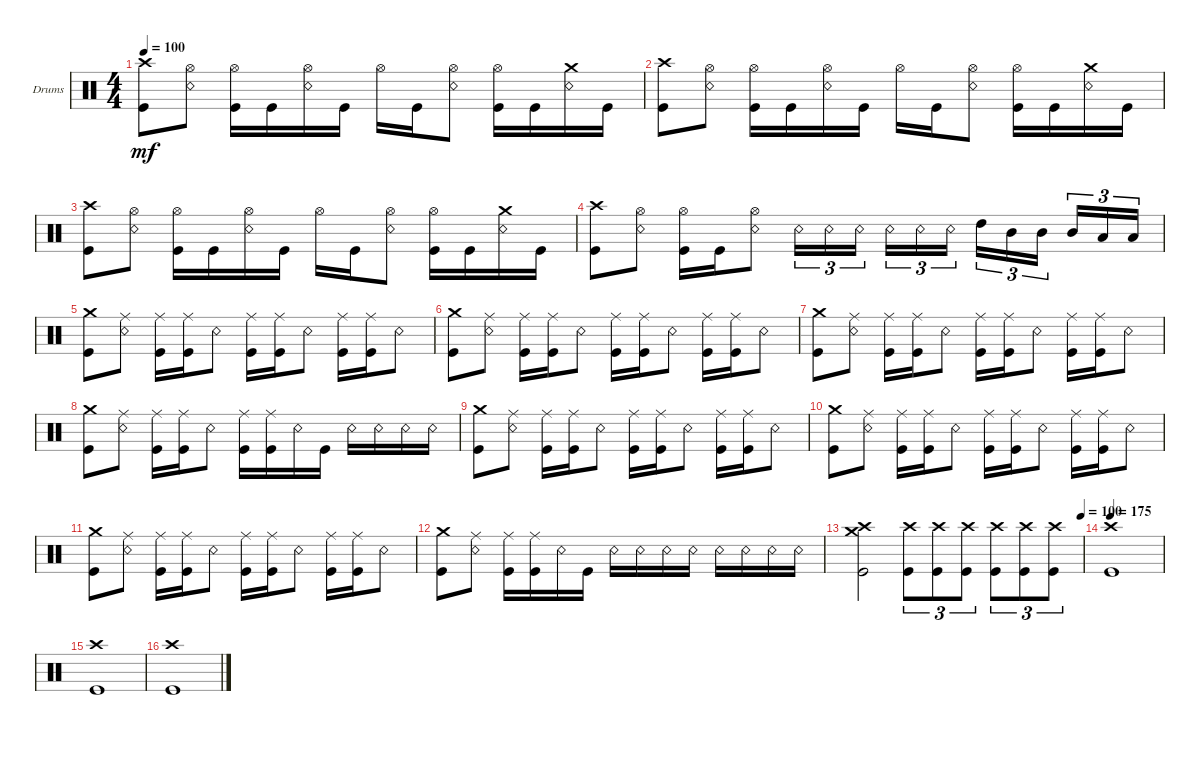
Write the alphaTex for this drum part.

\defaultSystemsLayout 4
\bracketExtendMode groupsimilarinstruments
\firstSystemTrackNameOrientation horizontal
\otherSystemsTrackNameOrientation horizontal
\track ("Drumkit" "Drums") {instrument percussion}
\staff {score}
\articulation defaults
\ts (4 4)
\tempo 100
\clef neutral
\ks c
("Kick (hit)" "Crash high (hit)").8{dy mf} ("Snare (rim shot)" "Hi-Hat (open)").8 ("Kick (hit)" "Hi-Hat (open)").16 "Kick (hit)".16 ("Snare (rim shot)" "Hi-Hat (open)").16 "Kick (hit)".16 "Hi-Hat (open)".16 "Kick (hit)".16 ("Snare (rim shot)" "Hi-Hat (open)").8 ("Kick (hit)" "Hi-Hat (open)").16 "Kick (hit)".16 ("Snare (rim shot)" "Crash medium (hit)").16 "Kick (hit)".16 |
("Kick (hit)" "Crash high (hit)").8 ("Snare (rim shot)" "Hi-Hat (open)").8 ("Kick (hit)" "Hi-Hat (open)").16 "Kick (hit)".16 ("Snare (rim shot)" "Hi-Hat (open)").16 "Kick (hit)".16 "Hi-Hat (open)".16 "Kick (hit)".16 ("Snare (rim shot)" "Hi-Hat (open)").8 ("Kick (hit)" "Hi-Hat (open)").16 "Kick (hit)".16 ("Snare (rim shot)" "Crash medium (hit)").16 "Kick (hit)".16 |
("Kick (hit)" "Crash high (hit)").8 ("Snare (rim shot)" "Hi-Hat (open)").8 ("Kick (hit)" "Hi-Hat (open)").16 "Kick (hit)".16 ("Snare (rim shot)" "Hi-Hat (open)").16 "Kick (hit)".16 "Hi-Hat (open)".16 "Kick (hit)".16 ("Snare (rim shot)" "Hi-Hat (open)").8 ("Kick (hit)" "Hi-Hat (open)").16 "Kick (hit)".16 ("Snare (rim shot)" "Crash medium (hit)").16 "Kick (hit)".16 |
("Kick (hit)" "Crash high (hit)").8 ("Snare (rim shot)" "Hi-Hat (open)").8 ("Kick (hit)" "Hi-Hat (open)").16 "Kick (hit)".16 ("Snare (rim shot)" "Hi-Hat (open)").8 "Snare (rim shot)".16{tu (3 2)} "Snare (rim shot)".16{tu (3 2)} "Snare (rim shot)".16{tu (3 2)} "Snare (rim shot)".16{tu (3 2)} "Snare (rim shot)".16{tu (3 2)} "Snare (rim shot)".16{tu (3 2)} "High Tom (hit)".16{tu (3 2)} "Mid Tom (hit)".16{tu (3 2)} "Mid Tom (hit)".16{tu (3 2)} "Mid Tom (hit)".16{tu (3 2)} "Low Tom (hit)".16{tu (3 2)} "Low Tom (hit)".16{tu (3 2)} |
("Kick (hit)" "Crash medium (hit)").8 ("Snare (rim shot)" "Ride (middle)").8 ("Kick (hit)" "Ride (middle)").16 ("Kick (hit)" "Ride (middle)").16 "Snare (rim shot)".8 ("Kick (hit)" "Ride (middle)").16 ("Kick (hit)" "Ride (middle)").16 "Snare (rim shot)".8 ("Kick (hit)" "Ride (middle)").16 ("Kick (hit)" "Ride (middle)").16 "Snare (rim shot)".8 |
("Kick (hit)" "Crash medium (hit)").8 ("Snare (rim shot)" "Ride (middle)").8 ("Kick (hit)" "Ride (middle)").16 ("Kick (hit)" "Ride (middle)").16 "Snare (rim shot)".8 ("Kick (hit)" "Ride (middle)").16 ("Kick (hit)" "Ride (middle)").16 "Snare (rim shot)".8 ("Kick (hit)" "Ride (middle)").16 ("Kick (hit)" "Ride (middle)").16 "Snare (rim shot)".8 |
("Kick (hit)" "Crash medium (hit)").8 ("Snare (rim shot)" "Ride (middle)").8 ("Kick (hit)" "Ride (middle)").16 ("Kick (hit)" "Ride (middle)").16 "Snare (rim shot)".8 ("Kick (hit)" "Ride (middle)").16 ("Kick (hit)" "Ride (middle)").16 "Snare (rim shot)".8 ("Kick (hit)" "Ride (middle)").16 ("Kick (hit)" "Ride (middle)").16 "Snare (rim shot)".8 |
("Kick (hit)" "Crash medium (hit)").8 ("Snare (rim shot)" "Ride (middle)").8 ("Kick (hit)" "Ride (middle)").16 ("Kick (hit)" "Ride (middle)").16 "Snare (rim shot)".8 ("Kick (hit)" "Ride (middle)").16 ("Kick (hit)" "Ride (middle)").16 "Snare (rim shot)".16 "Kick (hit)".16 "Snare (rim shot)".16 "Snare (rim shot)".16 "Snare (rim shot)".16 "Snare (rim shot)".16 |
("Kick (hit)" "Crash medium (hit)").8 ("Snare (rim shot)" "Ride (middle)").8 ("Kick (hit)" "Ride (middle)").16 ("Kick (hit)" "Ride (middle)").16 "Snare (rim shot)".8 ("Kick (hit)" "Ride (middle)").16 ("Kick (hit)" "Ride (middle)").16 "Snare (rim shot)".8 ("Kick (hit)" "Ride (middle)").16 ("Kick (hit)" "Ride (middle)").16 "Snare (rim shot)".8 |
("Kick (hit)" "Crash medium (hit)").8 ("Snare (rim shot)" "Ride (middle)").8 ("Kick (hit)" "Ride (middle)").16 ("Kick (hit)" "Ride (middle)").16 "Snare (rim shot)".8 ("Kick (hit)" "Ride (middle)").16 ("Kick (hit)" "Ride (middle)").16 "Snare (rim shot)".8 ("Kick (hit)" "Ride (middle)").16 ("Kick (hit)" "Ride (middle)").16 "Snare (rim shot)".8 |
("Kick (hit)" "Crash medium (hit)").8 ("Snare (rim shot)" "Ride (middle)").8 ("Kick (hit)" "Ride (middle)").16 ("Kick (hit)" "Ride (middle)").16 "Snare (rim shot)".8 ("Kick (hit)" "Ride (middle)").16 ("Kick (hit)" "Ride (middle)").16 "Snare (rim shot)".8 ("Kick (hit)" "Ride (middle)").16 ("Kick (hit)" "Ride (middle)").16 "Snare (rim shot)".8 |
("Kick (hit)" "Crash medium (hit)").8 ("Snare (rim shot)" "Ride (middle)").8 ("Kick (hit)" "Ride (middle)").16 ("Kick (hit)" "Ride (middle)").16 "Snare (rim shot)".16 "Kick (hit)".16 "Snare (rim shot)".16 "Snare (rim shot)".16 "Snare (rim shot)".16 "Snare (rim shot)".16 "Snare (rim shot)".16 "Snare (rim shot)".16 "Snare (rim shot)".16 "Snare (rim shot)".16 |
\tempo (100 0.99375)
("Kick (hit)" "Crash high (hit)" "Crash medium (hit)").2 ("Kick (hit)" "Crash high (hit)").8{tu (3 2)} ("Kick (hit)" "Crash high (hit)").8{tu (3 2)} ("Kick (hit)" "Crash high (hit)").8{tu (3 2)} ("Kick (hit)" "Crash high (hit)").8{tu (3 2)} ("Kick (hit)" "Crash high (hit)").8{tu (3 2)} ("Kick (hit)" "Crash high (hit)").8{tu (3 2)} |
\tempo 175
("Kick (hit)" "Crash high (hit)").1 |
("Kick (hit)" "Crash high (hit)").1 |
("Kick (hit)" "Crash high (hit)").1
